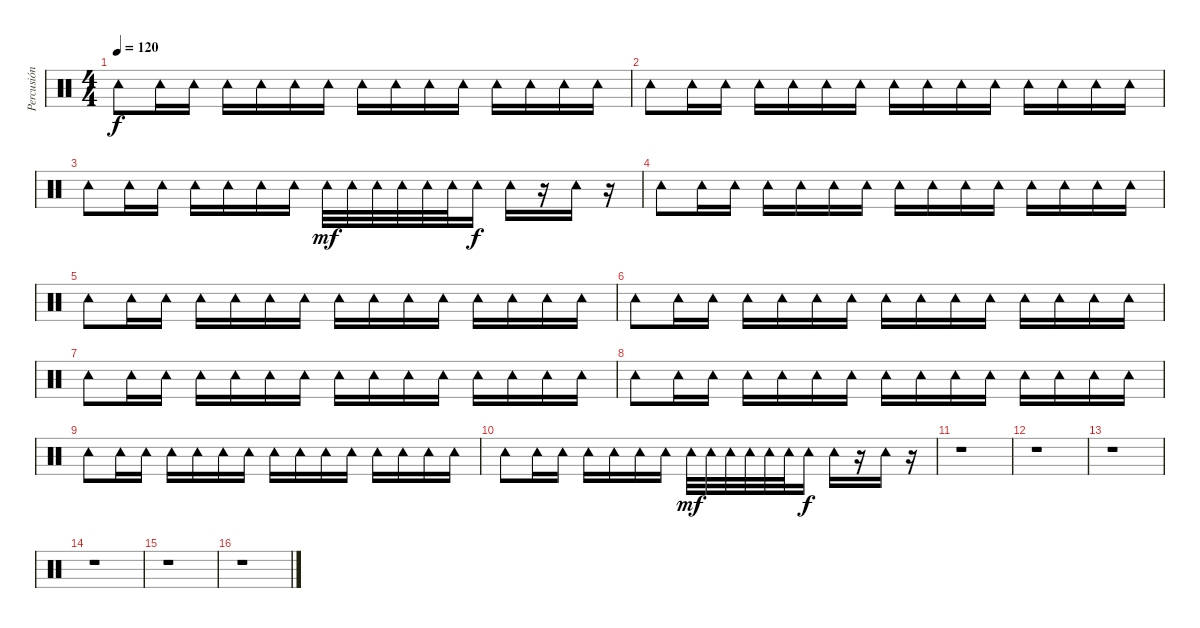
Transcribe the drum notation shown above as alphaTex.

\track ("Percusión" "Percusión") {instrument percussion}
\staff {score}
\articulation defaults
\ts (4 4)
\tempo 120
\clef neutral
\ks c "Tambourine (hit)".8{dy f} "Tambourine (hit)".16 "Tambourine (hit)".16 "Tambourine (hit)".16 "Tambourine (hit)".16 "Tambourine (hit)".16 "Tambourine (hit)".16 "Tambourine (hit)".16 "Tambourine (hit)".16 "Tambourine (hit)".16 "Tambourine (hit)".16 "Tambourine (hit)".16 "Tambourine (hit)".16 "Tambourine (hit)".16 "Tambourine (hit)".16
|
"Tambourine (hit)".8 "Tambourine (hit)".16 "Tambourine (hit)".16 "Tambourine (hit)".16 "Tambourine (hit)".16 "Tambourine (hit)".16 "Tambourine (hit)".16 "Tambourine (hit)".16 "Tambourine (hit)".16 "Tambourine (hit)".16 "Tambourine (hit)".16 "Tambourine (hit)".16 "Tambourine (hit)".16 "Tambourine (hit)".16 "Tambourine (hit)".16 |
"Tambourine (hit)".8 "Tambourine (hit)".16 "Tambourine (hit)".16 "Tambourine (hit)".16 "Tambourine (hit)".16 "Tambourine (hit)".16 "Tambourine (hit)".16 "Tambourine (hit)".32{dy mf} "Tambourine (hit)".32 "Tambourine (hit)".32 "Tambourine (hit)".32 "Tambourine (hit)".32 "Tambourine (hit)".32 "Tambourine (hit)".16{dy f} "Tambourine (hit)".16 r.16 "Tambourine (hit)".16 r.16 |
"Tambourine (hit)".8 "Tambourine (hit)".16 "Tambourine (hit)".16 "Tambourine (hit)".16 "Tambourine (hit)".16 "Tambourine (hit)".16 "Tambourine (hit)".16 "Tambourine (hit)".16 "Tambourine (hit)".16 "Tambourine (hit)".16 "Tambourine (hit)".16 "Tambourine (hit)".16 "Tambourine (hit)".16 "Tambourine (hit)".16 "Tambourine (hit)".16 |
"Tambourine (hit)".8 "Tambourine (hit)".16 "Tambourine (hit)".16 "Tambourine (hit)".16 "Tambourine (hit)".16 "Tambourine (hit)".16 "Tambourine (hit)".16 "Tambourine (hit)".16 "Tambourine (hit)".16 "Tambourine (hit)".16 "Tambourine (hit)".16 "Tambourine (hit)".16 "Tambourine (hit)".16 "Tambourine (hit)".16 "Tambourine (hit)".16 |
"Tambourine (hit)".8 "Tambourine (hit)".16 "Tambourine (hit)".16 "Tambourine (hit)".16 "Tambourine (hit)".16 "Tambourine (hit)".16 "Tambourine (hit)".16 "Tambourine (hit)".16 "Tambourine (hit)".16 "Tambourine (hit)".16 "Tambourine (hit)".16 "Tambourine (hit)".16 "Tambourine (hit)".16 "Tambourine (hit)".16 "Tambourine (hit)".16 |
"Tambourine (hit)".8 "Tambourine (hit)".16 "Tambourine (hit)".16 "Tambourine (hit)".16 "Tambourine (hit)".16 "Tambourine (hit)".16 "Tambourine (hit)".16 "Tambourine (hit)".16 "Tambourine (hit)".16 "Tambourine (hit)".16 "Tambourine (hit)".16 "Tambourine (hit)".16 "Tambourine (hit)".16 "Tambourine (hit)".16 "Tambourine (hit)".16 |
"Tambourine (hit)".8 "Tambourine (hit)".16 "Tambourine (hit)".16 "Tambourine (hit)".16 "Tambourine (hit)".16 "Tambourine (hit)".16 "Tambourine (hit)".16 "Tambourine (hit)".16 "Tambourine (hit)".16 "Tambourine (hit)".16 "Tambourine (hit)".16 "Tambourine (hit)".16 "Tambourine (hit)".16 "Tambourine (hit)".16 "Tambourine (hit)".16 |
"Tambourine (hit)".8 "Tambourine (hit)".16 "Tambourine (hit)".16 "Tambourine (hit)".16 "Tambourine (hit)".16 "Tambourine (hit)".16 "Tambourine (hit)".16 "Tambourine (hit)".16 "Tambourine (hit)".16 "Tambourine (hit)".16 "Tambourine (hit)".16 "Tambourine (hit)".16 "Tambourine (hit)".16 "Tambourine (hit)".16 "Tambourine (hit)".16 |
"Tambourine (hit)".8 "Tambourine (hit)".16 "Tambourine (hit)".16 "Tambourine (hit)".16 "Tambourine (hit)".16 "Tambourine (hit)".16 "Tambourine (hit)".16 "Tambourine (hit)".32{dy mf} "Tambourine (hit)".32 "Tambourine (hit)".32 "Tambourine (hit)".32 "Tambourine (hit)".32 "Tambourine (hit)".32 "Tambourine (hit)".16{dy f} "Tambourine (hit)".16 r.16 "Tambourine (hit)".16 r.16 |
r.1 |
r.1 |
r.1 |
r.1 |
r.1 |
r.1
